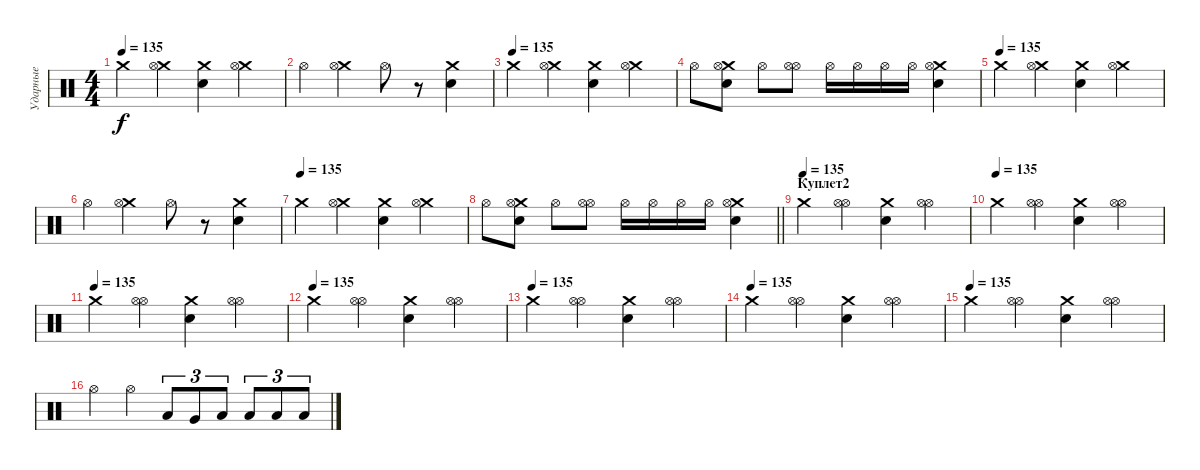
\track ("Ударные" "Ударные") {instrument percussion}
\staff {score}
\articulation defaults
\ts (4 4)
\tempo 135
\clef neutral
\ks c "Crash medium (hit)".4{dy f}
("Crash medium (hit)" "Hi-Hat (open)").4 ("Crash medium (hit)" "Electric Snare (hit)").4 ("Crash medium (hit)" "Hi-Hat (open)").4 |
"Hi-Hat (open)".4 ("Crash medium (hit)" "Hi-Hat (open)").4 "Hi-Hat (open)".8 r.8 ("Crash medium (hit)" "Electric Snare (hit)").4 |
\tempo (135)
"Crash medium (hit)".4 ("Crash medium (hit)" "Hi-Hat (open)").4 ("Crash medium (hit)" "Electric Snare (hit)").4 ("Crash medium (hit)" "Hi-Hat (open)").4 |
"Hi-Hat (open)".8 ("Crash medium (hit)" "Hi-Hat (open)" "Electric Snare (hit)").8 "Hi-Hat (open)".8 ("Hi-Hat (open)" "Hi-Hat (open)").8 "Hi-Hat (open)".16 "Hi-Hat (open)".16 "Hi-Hat (open)".16 "Hi-Hat (open)".16 ("Crash medium (hit)" "Hi-Hat (open)" "Electric Snare (hit)").4 |
\tempo (135)
"Crash medium (hit)".4 ("Crash medium (hit)" "Hi-Hat (open)").4 ("Crash medium (hit)" "Electric Snare (hit)").4 ("Crash medium (hit)" "Hi-Hat (open)").4 |
"Hi-Hat (open)".4 ("Crash medium (hit)" "Hi-Hat (open)").4 "Hi-Hat (open)".8 r.8 ("Crash medium (hit)" "Electric Snare (hit)").4 |
\tempo (135)
"Crash medium (hit)".4 ("Crash medium (hit)" "Hi-Hat (open)").4 ("Crash medium (hit)" "Electric Snare (hit)").4 ("Crash medium (hit)" "Hi-Hat (open)").4 |
\barLineRight lightlight "Hi-Hat (open)".8
("Crash medium (hit)" "Hi-Hat (open)" "Electric Snare (hit)").8 "Hi-Hat (open)".8 ("Hi-Hat (open)" "Hi-Hat (open)").8 "Hi-Hat (open)".16 "Hi-Hat (open)".16 "Hi-Hat (open)".16 "Hi-Hat (open)".16 ("Crash medium (hit)" "Hi-Hat (open)" "Electric Snare (hit)").4 |
\section ("" "Куплет2")
\tempo (135)
"Crash medium (hit)".4 ("Hi-Hat (open)" "Hi-Hat (open)").4 ("Crash medium (hit)" "Electric Snare (hit)").4 ("Hi-Hat (open)" "Hi-Hat (open)").4 |
\tempo (135)
"Crash medium (hit)".4 ("Hi-Hat (open)" "Hi-Hat (open)").4 ("Crash medium (hit)" "Electric Snare (hit)").4 ("Hi-Hat (open)" "Hi-Hat (open)").4 |
\tempo (135)
"Crash medium (hit)".4 ("Hi-Hat (open)" "Hi-Hat (open)").4 ("Crash medium (hit)" "Electric Snare (hit)").4 ("Hi-Hat (open)" "Hi-Hat (open)").4 |
\tempo (135)
"Crash medium (hit)".4 ("Hi-Hat (open)" "Hi-Hat (open)").4 ("Crash medium (hit)" "Electric Snare (hit)").4 ("Hi-Hat (open)" "Hi-Hat (open)").4 |
\tempo (135)
"Crash medium (hit)".4 ("Hi-Hat (open)" "Hi-Hat (open)").4 ("Crash medium (hit)" "Electric Snare (hit)").4 ("Hi-Hat (open)" "Hi-Hat (open)").4 |
\tempo (135)
"Crash medium (hit)".4 ("Hi-Hat (open)" "Hi-Hat (open)").4 ("Crash medium (hit)" "Electric Snare (hit)").4 ("Hi-Hat (open)" "Hi-Hat (open)").4 |
\tempo (135)
"Crash medium (hit)".4 ("Hi-Hat (open)" "Hi-Hat (open)").4 ("Crash medium (hit)" "Electric Snare (hit)").4 ("Hi-Hat (open)" "Hi-Hat (open)").4 |
"Hi-Hat (open)".4 "Hi-Hat (open)".4 "Low Tom (hit)".8{tu (3 2)} "Very Low Tom (hit)".8{tu (3 2)} "Low Floor Tom (hit)".8{tu (3 2)} "Low Floor Tom (hit)".8{tu (3 2)} "Low Floor Tom (hit)".8{tu (3 2)} "Low Floor Tom (hit)".8{tu (3 2)}
